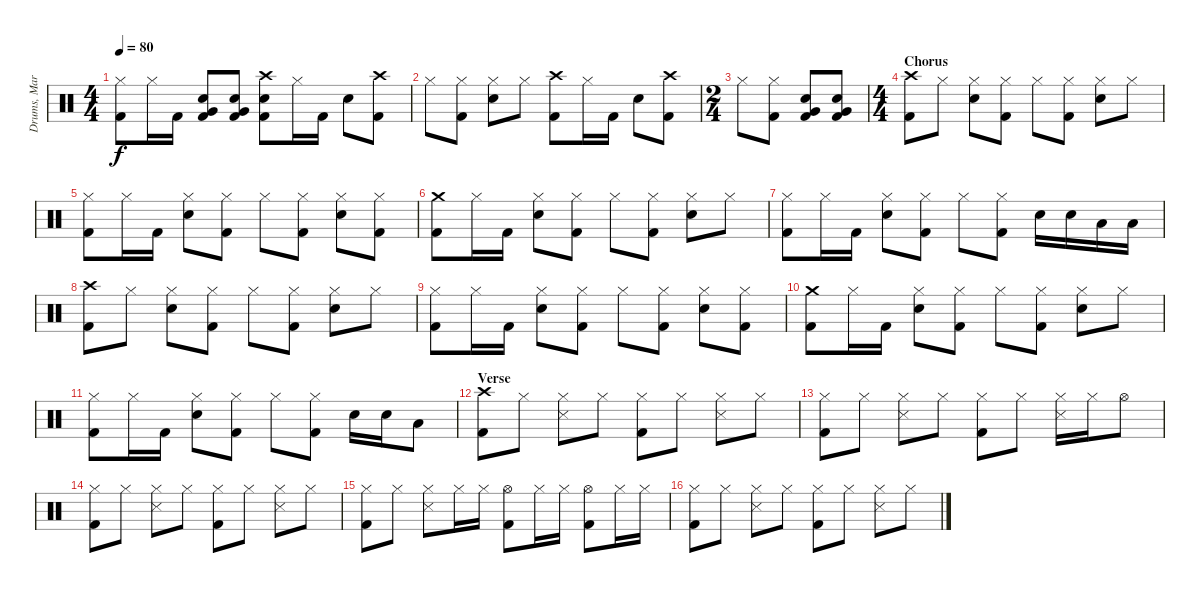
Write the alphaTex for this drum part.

\track ("Drums, Martina" "Drums, Mar") {instrument percussion}
\staff {score}
\articulation defaults
\ts (4 4)
\tempo 80
\clef neutral
\ks c
("Hi-Hat (closed)" "Kick (hit) 2").8{dy f} "Hi-Hat (closed)".16 "Kick (hit) 2".16 ("Electric Snare (hit)" "Very Low Tom (hit)" "Kick (hit) 2").8 ("Electric Snare (hit)" "Very Low Tom (hit)" "Kick (hit) 2").8 ("Crash high (hit)" "Electric Snare (hit)" "Kick (hit) 2").8 "Hi-Hat (closed)".16 "Kick (hit) 2".16 "Electric Snare (hit)".8 ("Crash high (hit)" "Kick (hit) 2").8 |
"Hi-Hat (closed)".8 ("Hi-Hat (closed)" "Kick (hit) 2").8 ("Hi-Hat (closed)" "Electric Snare (hit)").8 "Hi-Hat (closed)".8 ("Crash high (hit)" "Kick (hit) 2").8 "Hi-Hat (closed)".16 "Kick (hit) 2".16 "Electric Snare (hit)".8 ("Crash high (hit)" "Kick (hit) 2").8 |
\ts (2 4)
"Hi-Hat (closed)".8 ("Hi-Hat (closed)" "Kick (hit) 2").8 ("Electric Snare (hit)" "Very Low Tom (hit)" "Kick (hit) 2").8 ("Electric Snare (hit)" "Very Low Tom (hit)" "Kick (hit) 2").8 |
\ts (4 4)
\section ("" "Chorus")
("Crash high (hit)" "Kick (hit) 2").8 "Hi-Hat (closed)".8 ("Hi-Hat (closed)" "Electric Snare (hit)").8 ("Hi-Hat (closed)" "Kick (hit) 2").8 "Hi-Hat (closed)".8 ("Hi-Hat (closed)" "Kick (hit) 2").8 ("Hi-Hat (closed)" "Electric Snare (hit)").8 "Hi-Hat (closed)".8 |
("Hi-Hat (closed)" "Kick (hit) 2").8 "Hi-Hat (closed)".16 "Kick (hit) 2".16 ("Hi-Hat (closed)" "Electric Snare (hit)").8 ("Hi-Hat (closed)" "Kick (hit) 2").8 "Hi-Hat (closed)".8 ("Hi-Hat (closed)" "Kick (hit) 2").8 ("Hi-Hat (closed)" "Electric Snare (hit)").8 ("Hi-Hat (closed)" "Kick (hit) 2").8 |
("Crash medium (hit)" "Kick (hit) 2").8 "Hi-Hat (closed)".16 "Kick (hit) 2".16 ("Hi-Hat (closed)" "Electric Snare (hit)").8 ("Hi-Hat (closed)" "Kick (hit) 2").8 "Hi-Hat (closed)".8 ("Hi-Hat (closed)" "Kick (hit) 2").8 ("Hi-Hat (closed)" "Electric Snare (hit)").8 "Hi-Hat (closed)".8 |
("Hi-Hat (closed)" "Kick (hit) 2").8 "Hi-Hat (closed)".16 "Kick (hit) 2".16 ("Hi-Hat (closed)" "Electric Snare (hit)").8 ("Hi-Hat (closed)" "Kick (hit) 2").8 "Hi-Hat (closed)".8 ("Hi-Hat (closed)" "Kick (hit) 2").8 "Electric Snare (hit)".16 "Electric Snare (hit)".16 "Low Tom (hit)".16 "Low Tom (hit)".16 |
("Crash high (hit)" "Kick (hit) 2").8 "Hi-Hat (closed)".8 ("Hi-Hat (closed)" "Electric Snare (hit)").8 ("Hi-Hat (closed)" "Kick (hit) 2").8 "Hi-Hat (closed)".8 ("Hi-Hat (closed)" "Kick (hit) 2").8 ("Hi-Hat (closed)" "Electric Snare (hit)").8 "Hi-Hat (closed)".8 |
("Hi-Hat (closed)" "Kick (hit) 2").8 "Hi-Hat (closed)".16 "Kick (hit) 2".16 ("Hi-Hat (closed)" "Electric Snare (hit)").8 ("Hi-Hat (closed)" "Kick (hit) 2").8 "Hi-Hat (closed)".8 ("Hi-Hat (closed)" "Kick (hit) 2").8 ("Hi-Hat (closed)" "Electric Snare (hit)").8 ("Hi-Hat (closed)" "Kick (hit) 2").8 |
("Crash medium (hit)" "Kick (hit) 2").8 "Hi-Hat (closed)".16 "Kick (hit) 2".16 ("Hi-Hat (closed)" "Electric Snare (hit)").8 ("Hi-Hat (closed)" "Kick (hit) 2").8 "Hi-Hat (closed)".8 ("Hi-Hat (closed)" "Kick (hit) 2").8 ("Hi-Hat (closed)" "Electric Snare (hit)").8 "Hi-Hat (closed)".8 |
("Hi-Hat (closed)" "Kick (hit) 2").8 "Hi-Hat (closed)".16 "Kick (hit) 2".16 ("Hi-Hat (closed)" "Electric Snare (hit)").8 ("Hi-Hat (closed)" "Kick (hit) 2").8 "Hi-Hat (closed)".8 ("Hi-Hat (closed)" "Kick (hit) 2").8 "Electric Snare (hit)".16 "Electric Snare (hit)".16 "Low Tom (hit)".8 |
\section ("" "Verse")
("Crash high (hit)" "Kick (hit) 2").8 "Hi-Hat (closed)".8 ("Hi-Hat (closed)" "Snare (side stick) 3").8 "Hi-Hat (closed)".8 ("Hi-Hat (closed)" "Kick (hit) 2").8 "Hi-Hat (closed)".8 ("Hi-Hat (closed)" "Snare (side stick) 3").8 "Hi-Hat (closed)".8 |
("Hi-Hat (closed)" "Kick (hit) 2").8 "Hi-Hat (closed)".8 ("Hi-Hat (closed)" "Snare (side stick) 3").8 "Hi-Hat (closed)".8 ("Hi-Hat (closed)" "Kick (hit) 2").8 "Hi-Hat (closed)".8 ("Hi-Hat (closed)" "Snare (side stick) 3").16 "Hi-Hat (closed)".16 "Hi-Hat (open)".8 |
("Hi-Hat (closed)" "Kick (hit) 2").8 "Hi-Hat (closed)".8 ("Hi-Hat (closed)" "Snare (side stick) 3").8 "Hi-Hat (closed)".8 ("Hi-Hat (closed)" "Kick (hit) 2").8 "Hi-Hat (closed)".8 ("Hi-Hat (closed)" "Snare (side stick) 3").8 "Hi-Hat (closed)".8 |
("Hi-Hat (closed)" "Kick (hit) 2").8 "Hi-Hat (closed)".8 ("Hi-Hat (closed)" "Snare (side stick) 3").8 "Hi-Hat (closed)".16 "Hi-Hat (closed)".16 ("Hi-Hat (open)" "Kick (hit) 2").8 "Hi-Hat (closed)".16 "Hi-Hat (closed)".16 ("Hi-Hat (open)" "Kick (hit) 2").8 "Hi-Hat (closed)".16 "Hi-Hat (closed)".16 |
("Hi-Hat (closed)" "Kick (hit) 2").8 "Hi-Hat (closed)".8 ("Hi-Hat (closed)" "Snare (side stick) 3").8 "Hi-Hat (closed)".8 ("Hi-Hat (closed)" "Kick (hit) 2").8 "Hi-Hat (closed)".8 ("Hi-Hat (closed)" "Snare (side stick) 3").8 "Hi-Hat (closed)".8
